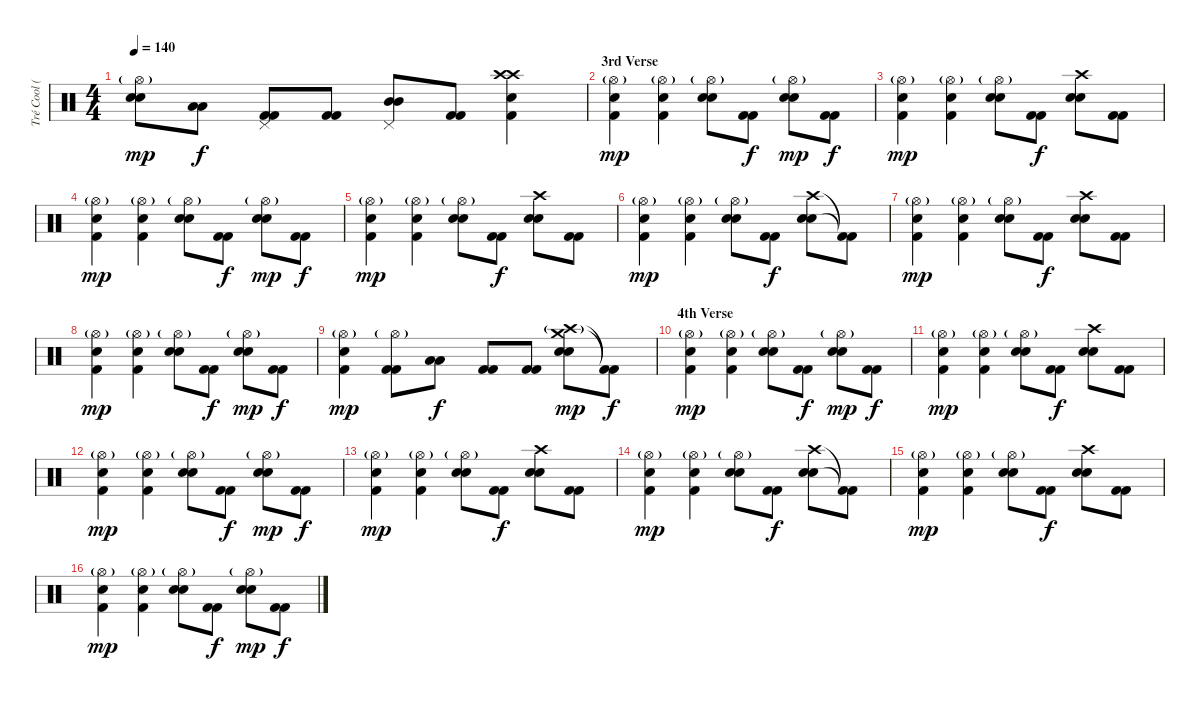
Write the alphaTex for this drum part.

\track ("Tré Cool (Drums)" "Tré Cool (") {instrument percussion}
\staff {score}
\articulation defaults
\ts (4 4)
\tempo 140
\clef neutral
\ks c
("Hi-Hat (open)"{g} "Electric Snare (hit)" "Electric Snare (hit)").8{dy mp} ("Low Tom (hit)" "Low Tom (hit)").8{dy f} ("Pedal Hi-Hat (hit)" "Kick (hit) 2" "Kick (hit) 2").8 ("Kick (hit) 2" "Kick (hit) 2").8 ("Pedal Hi-Hat (hit)" "Mid Tom (hit)" "Mid Tom (hit)").8 ("Kick (hit) 2" "Kick (hit) 2").8 ("Crash high (hit)" "Crash high (hit)" "Electric Snare (hit)" "Kick (hit) 2").4 |
\section ("" "3rd Verse")
("Hi-Hat (open)"{g} "Electric Snare (hit)" "Kick (hit) 2").4{dy mp} ("Hi-Hat (open)"{g} "Electric Snare (hit)" "Kick (hit) 2").4 ("Hi-Hat (open)"{g} "Electric Snare (hit)" "Electric Snare (hit)").8 ("Kick (hit) 2" "Kick (hit) 2").8{dy f} ("Hi-Hat (open)"{g} "Electric Snare (hit)" "Electric Snare (hit)").8{dy mp} ("Kick (hit) 2" "Kick (hit) 2").8{dy f} |
("Hi-Hat (open)"{g} "Electric Snare (hit)" "Kick (hit) 2").4{dy mp} ("Hi-Hat (open)"{g} "Electric Snare (hit)" "Kick (hit) 2").4 ("Hi-Hat (open)"{g} "Electric Snare (hit)" "Electric Snare (hit)").8 ("Kick (hit) 2" "Kick (hit) 2").8{dy f} ("Crash high (hit)" "Electric Snare (hit)" "Electric Snare (hit)").8 ("Kick (hit) 2" "Kick (hit) 2").8 |
("Hi-Hat (open)"{g} "Electric Snare (hit)" "Kick (hit) 2").4{dy mp} ("Hi-Hat (open)"{g} "Electric Snare (hit)" "Kick (hit) 2").4 ("Hi-Hat (open)"{g} "Electric Snare (hit)" "Electric Snare (hit)").8 ("Kick (hit) 2" "Kick (hit) 2").8{dy f} ("Hi-Hat (open)"{g} "Electric Snare (hit)" "Electric Snare (hit)").8{dy mp} ("Kick (hit) 2" "Kick (hit) 2").8{dy f} |
("Hi-Hat (open)"{g} "Electric Snare (hit)" "Kick (hit) 2").4{dy mp} ("Hi-Hat (open)"{g} "Electric Snare (hit)" "Kick (hit) 2").4 ("Hi-Hat (open)"{g} "Electric Snare (hit)" "Electric Snare (hit)").8 ("Kick (hit) 2" "Kick (hit) 2").8{dy f} ("Crash high (hit)" "Electric Snare (hit)" "Electric Snare (hit)").8 ("Kick (hit) 2" "Kick (hit) 2").8 |
("Hi-Hat (open)"{g} "Electric Snare (hit)" "Kick (hit) 2").4{dy mp} ("Hi-Hat (open)"{g} "Electric Snare (hit)" "Kick (hit) 2").4 ("Hi-Hat (open)"{g} "Electric Snare (hit)" "Electric Snare (hit)").8 ("Kick (hit) 2" "Kick (hit) 2").8{dy f} ("Crash high (hit)" "Electric Snare (hit)" "Electric Snare (hit)").8 ("Kick (hit) 2"{t} "Kick (hit) 2"{t}).8 |
("Hi-Hat (open)"{g} "Electric Snare (hit)" "Kick (hit) 2").4{dy mp} ("Hi-Hat (open)"{g} "Electric Snare (hit)" "Kick (hit) 2").4 ("Hi-Hat (open)"{g} "Electric Snare (hit)" "Electric Snare (hit)").8 ("Kick (hit) 2" "Kick (hit) 2").8{dy f} ("Crash high (hit)" "Electric Snare (hit)" "Electric Snare (hit)").8 ("Kick (hit) 2" "Kick (hit) 2").8 |
("Hi-Hat (open)"{g} "Electric Snare (hit)" "Kick (hit) 2").4{dy mp} ("Hi-Hat (open)"{g} "Electric Snare (hit)" "Kick (hit) 2").4 ("Hi-Hat (open)"{g} "Electric Snare (hit)" "Electric Snare (hit)").8 ("Kick (hit) 2" "Kick (hit) 2").8{dy f} ("Hi-Hat (open)"{g} "Electric Snare (hit)" "Electric Snare (hit)").8{dy mp} ("Kick (hit) 2" "Kick (hit) 2").8{dy f} |
("Hi-Hat (open)"{g} "Electric Snare (hit)" "Kick (hit) 2").4{dy mp} ("Hi-Hat (open)"{g} "Kick (hit) 2" "Kick (hit) 2").8 ("Low Tom (hit)" "Low Tom (hit)").8{dy f} ("Kick (hit) 2" "Kick (hit) 2").8 ("Kick (hit) 2" "Kick (hit) 2").8 ("Crash high (hit)"{g} "Crash medium (hit)" "Electric Snare (hit)" "Electric Snare (hit)").8{dy mp} ("Kick (hit) 2"{t} "Kick (hit) 2"{t}).8{dy f} |
\section ("" "4th Verse")
("Hi-Hat (open)"{g} "Electric Snare (hit)" "Kick (hit) 2").4{dy mp} ("Hi-Hat (open)"{g} "Electric Snare (hit)" "Kick (hit) 2").4 ("Hi-Hat (open)"{g} "Electric Snare (hit)" "Electric Snare (hit)").8 ("Kick (hit) 2" "Kick (hit) 2").8{dy f} ("Hi-Hat (open)"{g} "Electric Snare (hit)" "Electric Snare (hit)").8{dy mp} ("Kick (hit) 2" "Kick (hit) 2").8{dy f} |
("Hi-Hat (open)"{g} "Electric Snare (hit)" "Kick (hit) 2").4{dy mp} ("Hi-Hat (open)"{g} "Electric Snare (hit)" "Kick (hit) 2").4 ("Hi-Hat (open)"{g} "Electric Snare (hit)" "Electric Snare (hit)").8 ("Kick (hit) 2" "Kick (hit) 2").8{dy f} ("Crash high (hit)" "Electric Snare (hit)" "Electric Snare (hit)").8 ("Kick (hit) 2" "Kick (hit) 2").8 |
("Hi-Hat (open)"{g} "Electric Snare (hit)" "Kick (hit) 2").4{dy mp} ("Hi-Hat (open)"{g} "Electric Snare (hit)" "Kick (hit) 2").4 ("Hi-Hat (open)"{g} "Electric Snare (hit)" "Electric Snare (hit)").8 ("Kick (hit) 2" "Kick (hit) 2").8{dy f} ("Hi-Hat (open)"{g} "Electric Snare (hit)" "Electric Snare (hit)").8{dy mp} ("Kick (hit) 2" "Kick (hit) 2").8{dy f} |
("Hi-Hat (open)"{g} "Electric Snare (hit)" "Kick (hit) 2").4{dy mp} ("Hi-Hat (open)"{g} "Electric Snare (hit)" "Kick (hit) 2").4 ("Hi-Hat (open)"{g} "Electric Snare (hit)" "Electric Snare (hit)").8 ("Kick (hit) 2" "Kick (hit) 2").8{dy f} ("Crash high (hit)" "Electric Snare (hit)" "Electric Snare (hit)").8 ("Kick (hit) 2" "Kick (hit) 2").8 |
("Hi-Hat (open)"{g} "Electric Snare (hit)" "Kick (hit) 2").4{dy mp} ("Hi-Hat (open)"{g} "Electric Snare (hit)" "Kick (hit) 2").4 ("Hi-Hat (open)"{g} "Electric Snare (hit)" "Electric Snare (hit)").8 ("Kick (hit) 2" "Kick (hit) 2").8{dy f} ("Crash high (hit)" "Electric Snare (hit)" "Electric Snare (hit)").8 ("Kick (hit) 2"{t} "Kick (hit) 2"{t}).8 |
("Hi-Hat (open)"{g} "Electric Snare (hit)" "Kick (hit) 2").4{dy mp} ("Hi-Hat (open)"{g} "Electric Snare (hit)" "Kick (hit) 2").4 ("Hi-Hat (open)"{g} "Electric Snare (hit)" "Electric Snare (hit)").8 ("Kick (hit) 2" "Kick (hit) 2").8{dy f} ("Crash high (hit)" "Electric Snare (hit)" "Electric Snare (hit)").8 ("Kick (hit) 2" "Kick (hit) 2").8 |
("Hi-Hat (open)"{g} "Electric Snare (hit)" "Kick (hit) 2").4{dy mp} ("Hi-Hat (open)"{g} "Electric Snare (hit)" "Kick (hit) 2").4 ("Hi-Hat (open)"{g} "Electric Snare (hit)" "Electric Snare (hit)").8 ("Kick (hit) 2" "Kick (hit) 2").8{dy f} ("Hi-Hat (open)"{g} "Electric Snare (hit)" "Electric Snare (hit)").8{dy mp} ("Kick (hit) 2" "Kick (hit) 2").8{dy f}
